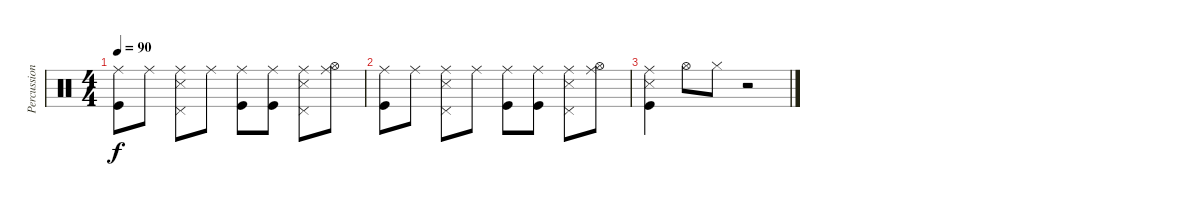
\track ("Percussion" "Percussion") {instrument percussion}
\staff {score}
\articulation defaults
\ts (4 4)
\tempo 90
\clef neutral
\ks c
("Ride (middle)" "Kick (hit)").8{dy f} "Ride (middle)".8 ("Ride (middle)" "Pedal Hi-Hat (hit)" "Snare (side stick) 3").8 "Ride (middle)".8 ("Ride (middle)" "Kick (hit)").8 ("Ride (middle)" "Kick (hit)").8 ("Ride (middle)" "Pedal Hi-Hat (hit)" "Snare (side stick) 3").8 ("Ride (middle)" "Hi-Hat (open)").8 |
("Ride (middle)" "Kick (hit)").8 "Ride (middle)".8 ("Ride (middle)" "Pedal Hi-Hat (hit)" "Snare (side stick) 3").8 "Ride (middle)".8 ("Ride (middle)" "Kick (hit)").8 ("Ride (middle)" "Kick (hit)").8 ("Ride (middle)" "Pedal Hi-Hat (hit)" "Snare (side stick) 3").8 ("Ride (middle)" "Hi-Hat (open)").8 |
("Ride (middle)" "Snare (side stick) 3" "Kick (hit)").4 "Hi-Hat (open)".8 "Hi-Hat (closed)".8 r.2
